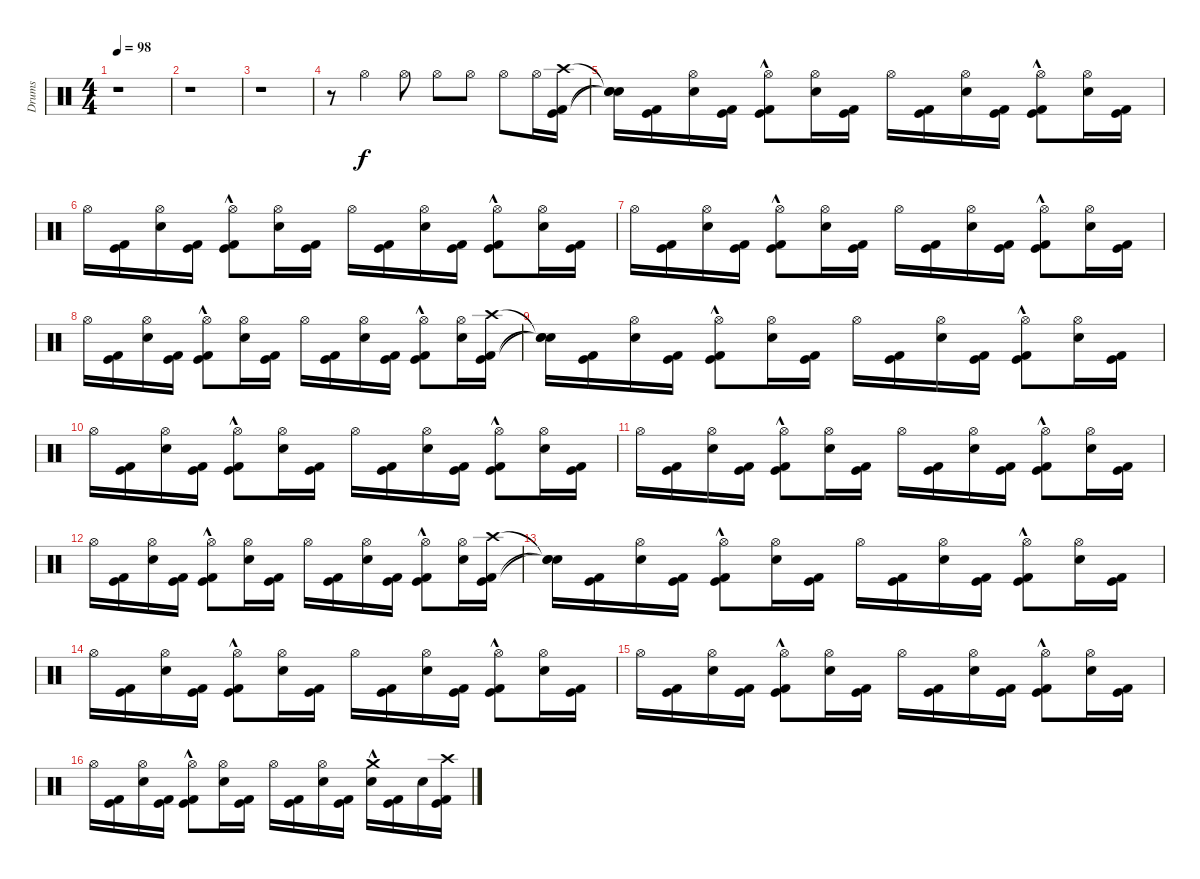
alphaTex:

\track ("Drums" "Drums") {instrument percussion}
\staff {score}
\articulation defaults
\ts (4 4)
\tempo 98
\clef neutral
\ks c
r.1{dy f} |
r.1 |
r.1 |
r.8 "Hi-Hat (open)".4 "Hi-Hat (open)".8 "Hi-Hat (open)".8 "Hi-Hat (open)".8 "Hi-Hat (open)".8 "Hi-Hat (open)".16 ("Kick (hit)" "Kick (hit) 2" "Crash high (hit)").16 |
("Snare (hit)"{t} "Snare (hit)"{t} "Snare (hit)"{t}).16 ("Kick (hit)" "Kick (hit) 2").16 ("Electric Snare (hit)" "Hi-Hat (open)").16 ("Kick (hit)" "Kick (hit) 2").16 ("Kick (hit)"{hac} "Kick (hit) 2"{hac} "Hi-Hat (open)").8 ("Electric Snare (hit)" "Hi-Hat (open)").16 ("Kick (hit)" "Kick (hit) 2").16 "Hi-Hat (open)".16 ("Kick (hit)" "Kick (hit) 2").16 ("Electric Snare (hit)" "Hi-Hat (open)").16 ("Kick (hit)" "Kick (hit) 2").16 ("Kick (hit)"{hac} "Kick (hit) 2"{hac} "Hi-Hat (open)").8 ("Electric Snare (hit)" "Hi-Hat (open)").16 ("Kick (hit)" "Kick (hit) 2").16 |
"Hi-Hat (open)".16 ("Kick (hit)" "Kick (hit) 2").16 ("Electric Snare (hit)" "Hi-Hat (open)").16 ("Kick (hit)" "Kick (hit) 2").16 ("Kick (hit)"{hac} "Kick (hit) 2"{hac} "Hi-Hat (open)").8 ("Electric Snare (hit)" "Hi-Hat (open)").16 ("Kick (hit)" "Kick (hit) 2").16 "Hi-Hat (open)".16 ("Kick (hit)" "Kick (hit) 2").16 ("Electric Snare (hit)" "Hi-Hat (open)").16 ("Kick (hit)" "Kick (hit) 2").16 ("Kick (hit)"{hac} "Kick (hit) 2"{hac} "Hi-Hat (open)").8 ("Electric Snare (hit)" "Hi-Hat (open)").16 ("Kick (hit)" "Kick (hit) 2").16 |
"Hi-Hat (open)".16 ("Kick (hit)" "Kick (hit) 2").16 ("Electric Snare (hit)" "Hi-Hat (open)").16 ("Kick (hit)" "Kick (hit) 2").16 ("Kick (hit)"{hac} "Kick (hit) 2"{hac} "Hi-Hat (open)").8 ("Electric Snare (hit)" "Hi-Hat (open)").16 ("Kick (hit)" "Kick (hit) 2").16 "Hi-Hat (open)".16 ("Kick (hit)" "Kick (hit) 2").16 ("Electric Snare (hit)" "Hi-Hat (open)").16 ("Kick (hit)" "Kick (hit) 2").16 ("Kick (hit)"{hac} "Kick (hit) 2"{hac} "Hi-Hat (open)").8 ("Electric Snare (hit)" "Hi-Hat (open)").16 ("Kick (hit)" "Kick (hit) 2").16 |
"Hi-Hat (open)".16 ("Kick (hit)" "Kick (hit) 2").16 ("Electric Snare (hit)" "Hi-Hat (open)").16 ("Kick (hit)" "Kick (hit) 2").16 ("Kick (hit)"{hac} "Kick (hit) 2"{hac} "Hi-Hat (open)").8 ("Electric Snare (hit)" "Hi-Hat (open)").16 ("Kick (hit)" "Kick (hit) 2").16 "Hi-Hat (open)".16 ("Kick (hit)" "Kick (hit) 2").16 ("Electric Snare (hit)" "Hi-Hat (open)").16 ("Kick (hit)" "Kick (hit) 2").16 ("Kick (hit)"{hac} "Kick (hit) 2"{hac} "Hi-Hat (open)").8 ("Electric Snare (hit)" "Hi-Hat (open)").16 ("Kick (hit)" "Kick (hit) 2" "Crash high (hit)").16 |
("Snare (hit)"{t} "Snare (hit)"{t} "Snare (hit)"{t}).16 ("Kick (hit)" "Kick (hit) 2").16 ("Electric Snare (hit)" "Hi-Hat (open)").16 ("Kick (hit)" "Kick (hit) 2").16 ("Kick (hit)"{hac} "Kick (hit) 2"{hac} "Hi-Hat (open)").8 ("Electric Snare (hit)" "Hi-Hat (open)").16 ("Kick (hit)" "Kick (hit) 2").16 "Hi-Hat (open)".16 ("Kick (hit)" "Kick (hit) 2").16 ("Electric Snare (hit)" "Hi-Hat (open)").16 ("Kick (hit)" "Kick (hit) 2").16 ("Kick (hit)"{hac} "Kick (hit) 2"{hac} "Hi-Hat (open)").8 ("Electric Snare (hit)" "Hi-Hat (open)").16 ("Kick (hit)" "Kick (hit) 2").16 |
"Hi-Hat (open)".16 ("Kick (hit)" "Kick (hit) 2").16 ("Electric Snare (hit)" "Hi-Hat (open)").16 ("Kick (hit)" "Kick (hit) 2").16 ("Kick (hit)"{hac} "Kick (hit) 2"{hac} "Hi-Hat (open)").8 ("Electric Snare (hit)" "Hi-Hat (open)").16 ("Kick (hit)" "Kick (hit) 2").16 "Hi-Hat (open)".16 ("Kick (hit)" "Kick (hit) 2").16 ("Electric Snare (hit)" "Hi-Hat (open)").16 ("Kick (hit)" "Kick (hit) 2").16 ("Kick (hit)"{hac} "Kick (hit) 2"{hac} "Hi-Hat (open)").8 ("Electric Snare (hit)" "Hi-Hat (open)").16 ("Kick (hit)" "Kick (hit) 2").16 |
"Hi-Hat (open)".16 ("Kick (hit)" "Kick (hit) 2").16 ("Electric Snare (hit)" "Hi-Hat (open)").16 ("Kick (hit)" "Kick (hit) 2").16 ("Kick (hit)"{hac} "Kick (hit) 2"{hac} "Hi-Hat (open)").8 ("Electric Snare (hit)" "Hi-Hat (open)").16 ("Kick (hit)" "Kick (hit) 2").16 "Hi-Hat (open)".16 ("Kick (hit)" "Kick (hit) 2").16 ("Electric Snare (hit)" "Hi-Hat (open)").16 ("Kick (hit)" "Kick (hit) 2").16 ("Kick (hit)"{hac} "Kick (hit) 2"{hac} "Hi-Hat (open)").8 ("Electric Snare (hit)" "Hi-Hat (open)").16 ("Kick (hit)" "Kick (hit) 2").16 |
"Hi-Hat (open)".16 ("Kick (hit)" "Kick (hit) 2").16 ("Electric Snare (hit)" "Hi-Hat (open)").16 ("Kick (hit)" "Kick (hit) 2").16 ("Kick (hit)"{hac} "Kick (hit) 2"{hac} "Hi-Hat (open)").8 ("Electric Snare (hit)" "Hi-Hat (open)").16 ("Kick (hit)" "Kick (hit) 2").16 "Hi-Hat (open)".16 ("Kick (hit)" "Kick (hit) 2").16 ("Electric Snare (hit)" "Hi-Hat (open)").16 ("Kick (hit)" "Kick (hit) 2").16 ("Kick (hit)"{hac} "Kick (hit) 2"{hac} "Hi-Hat (open)").8 ("Electric Snare (hit)" "Hi-Hat (open)").16 ("Kick (hit)" "Kick (hit) 2" "Crash high (hit)").16 |
("Snare (hit)"{t} "Snare (hit)"{t} "Snare (hit)"{t}).16 ("Kick (hit)" "Kick (hit) 2").16 ("Electric Snare (hit)" "Hi-Hat (open)").16 ("Kick (hit)" "Kick (hit) 2").16 ("Kick (hit)"{hac} "Kick (hit) 2"{hac} "Hi-Hat (open)").8 ("Electric Snare (hit)" "Hi-Hat (open)").16 ("Kick (hit)" "Kick (hit) 2").16 "Hi-Hat (open)".16 ("Kick (hit)" "Kick (hit) 2").16 ("Electric Snare (hit)" "Hi-Hat (open)").16 ("Kick (hit)" "Kick (hit) 2").16 ("Kick (hit)"{hac} "Kick (hit) 2"{hac} "Hi-Hat (open)").8 ("Electric Snare (hit)" "Hi-Hat (open)").16 ("Kick (hit)" "Kick (hit) 2").16 |
"Hi-Hat (open)".16 ("Kick (hit)" "Kick (hit) 2").16 ("Electric Snare (hit)" "Hi-Hat (open)").16 ("Kick (hit)" "Kick (hit) 2").16 ("Kick (hit)"{hac} "Kick (hit) 2"{hac} "Hi-Hat (open)").8 ("Electric Snare (hit)" "Hi-Hat (open)").16 ("Kick (hit)" "Kick (hit) 2").16 "Hi-Hat (open)".16 ("Kick (hit)" "Kick (hit) 2").16 ("Electric Snare (hit)" "Hi-Hat (open)").16 ("Kick (hit)" "Kick (hit) 2").16 ("Kick (hit)"{hac} "Kick (hit) 2"{hac} "Hi-Hat (open)").8 ("Electric Snare (hit)" "Hi-Hat (open)").16 ("Kick (hit)" "Kick (hit) 2").16 |
"Hi-Hat (open)".16 ("Kick (hit)" "Kick (hit) 2").16 ("Electric Snare (hit)" "Hi-Hat (open)").16 ("Kick (hit)" "Kick (hit) 2").16 ("Kick (hit)"{hac} "Kick (hit) 2"{hac} "Hi-Hat (open)").8 ("Electric Snare (hit)" "Hi-Hat (open)").16 ("Kick (hit)" "Kick (hit) 2").16 "Hi-Hat (open)".16 ("Kick (hit)" "Kick (hit) 2").16 ("Electric Snare (hit)" "Hi-Hat (open)").16 ("Kick (hit)" "Kick (hit) 2").16 ("Kick (hit)"{hac} "Kick (hit) 2"{hac} "Hi-Hat (open)").8 ("Electric Snare (hit)" "Hi-Hat (open)").16 ("Kick (hit)" "Kick (hit) 2").16 |
"Hi-Hat (open)".16 ("Kick (hit)" "Kick (hit) 2").16 ("Electric Snare (hit)" "Hi-Hat (open)").16 ("Kick (hit)" "Kick (hit) 2").16 ("Kick (hit)"{hac} "Kick (hit) 2"{hac} "Hi-Hat (open)").8 ("Electric Snare (hit)" "Hi-Hat (open)").16 ("Kick (hit)" "Kick (hit) 2").16 "Hi-Hat (open)".16 ("Kick (hit)" "Kick (hit) 2").16 ("Electric Snare (hit)" "Hi-Hat (open)").16 ("Kick (hit)" "Kick (hit) 2").16 ("Electric Snare (hit)" "Crash medium (hit)"{hac}).16 ("Kick (hit)" "Kick (hit) 2").16 "Electric Snare (hit)".16 ("Kick (hit)" "Kick (hit) 2" "Crash high (hit)").16
